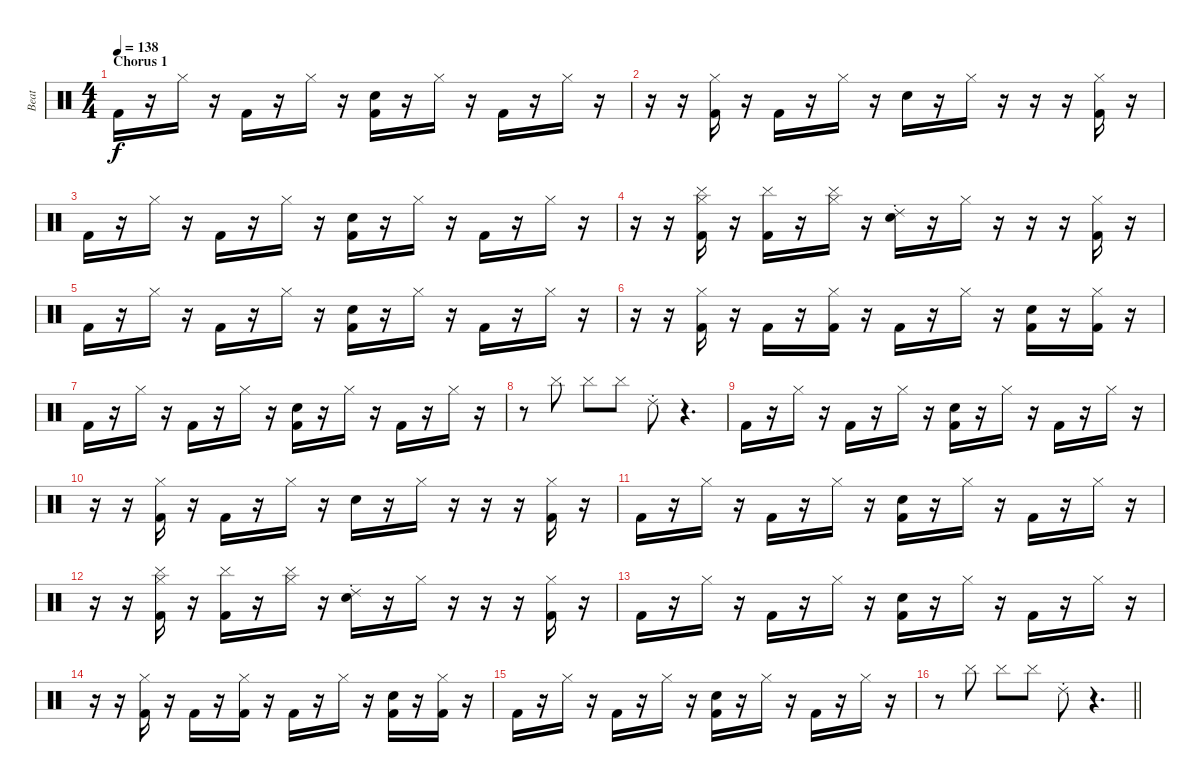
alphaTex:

\track ("Beat" "Beat") {instrument percussion}
\staff {score}
\articulation defaults
\ts (4 4)
\section ("" "Chorus 1")
\tempo 138
\clef neutral
\ks c "Kick (hit) 2".16{dy f}
r.16 "Hi-Hat (closed)".16 r.16 "Kick (hit) 2".16 r.16 "Hi-Hat (closed)".16 r.16 ("Electric Snare (hit)" "Kick (hit) 2").16 r.16 "Hi-Hat (closed)".16 r.16 "Kick (hit) 2".16 r.16 "Hi-Hat (closed)".16 r.16 |
r.16 r.16 ("Hi-Hat (closed)" "Kick (hit) 2").16 r.16 "Kick (hit) 2".16 r.16 "Hi-Hat (closed)".16 r.16 "Electric Snare (hit)".16 r.16 "Hi-Hat (closed)".16 r.16 r.16 r.16 ("Hi-Hat (closed)" "Kick (hit) 2").16 r.16 |
"Kick (hit) 2".16 r.16 "Hi-Hat (closed)".16 r.16 "Kick (hit) 2".16 r.16 "Hi-Hat (closed)".16 r.16 ("Electric Snare (hit)" "Kick (hit) 2").16 r.16 "Hi-Hat (closed)".16 r.16 "Kick (hit) 2".16 r.16 "Hi-Hat (closed)".16 r.16 |
r.16 r.16 ("Cymbal (hit)" "Hi-Hat (closed)" "Kick (hit) 2").16 r.16 ("Cymbal (hit)" "Kick (hit) 2").16 r.16 ("Cymbal (hit)" "Hi-Hat (closed)").16 r.16 ("Ride (choke) 2" "Electric Snare (hit)").16 r.16 "Hi-Hat (closed)".16 r.16 r.16 r.16 ("Hi-Hat (closed)" "Kick (hit) 2").16 r.16 |
"Kick (hit) 2".16 r.16 "Hi-Hat (closed)".16 r.16 "Kick (hit) 2".16 r.16 "Hi-Hat (closed)".16 r.16 ("Electric Snare (hit)" "Kick (hit) 2").16 r.16 "Hi-Hat (closed)".16 r.16 "Kick (hit) 2".16 r.16 "Hi-Hat (closed)".16 r.16 |
r.16 r.16 ("Hi-Hat (closed)" "Kick (hit) 2").16 r.16 "Kick (hit) 2".16 r.16 ("Hi-Hat (closed)" "Kick (hit) 2").16 r.16 "Kick (hit) 2".16 r.16 "Hi-Hat (closed)".16 r.16 ("Electric Snare (hit)" "Kick (hit) 2").16 r.16 ("Hi-Hat (closed)" "Kick (hit) 2").16 r.16 |
"Kick (hit) 2".16 r.16 "Hi-Hat (closed)".16 r.16 "Kick (hit) 2".16 r.16 "Hi-Hat (closed)".16 r.16 ("Electric Snare (hit)" "Kick (hit) 2").16 r.16 "Hi-Hat (closed)".16 r.16 "Kick (hit) 2".16 r.16 "Hi-Hat (closed)".16 r.16 |
r.8 "Cymbal (hit)".8 "Cymbal (hit)".8 "Cymbal (hit)".8 "Ride (choke) 2".8 r.4{d} |
"Kick (hit) 2".16 r.16 "Hi-Hat (closed)".16 r.16 "Kick (hit) 2".16 r.16 "Hi-Hat (closed)".16 r.16 ("Electric Snare (hit)" "Kick (hit) 2").16 r.16 "Hi-Hat (closed)".16 r.16 "Kick (hit) 2".16 r.16 "Hi-Hat (closed)".16 r.16 |
r.16 r.16 ("Hi-Hat (closed)" "Kick (hit) 2").16 r.16 "Kick (hit) 2".16 r.16 "Hi-Hat (closed)".16 r.16 "Electric Snare (hit)".16 r.16 "Hi-Hat (closed)".16 r.16 r.16 r.16 ("Hi-Hat (closed)" "Kick (hit) 2").16 r.16 |
"Kick (hit) 2".16 r.16 "Hi-Hat (closed)".16 r.16 "Kick (hit) 2".16 r.16 "Hi-Hat (closed)".16 r.16 ("Electric Snare (hit)" "Kick (hit) 2").16 r.16 "Hi-Hat (closed)".16 r.16 "Kick (hit) 2".16 r.16 "Hi-Hat (closed)".16 r.16 |
r.16 r.16 ("Cymbal (hit)" "Hi-Hat (closed)" "Kick (hit) 2").16 r.16 ("Cymbal (hit)" "Kick (hit) 2").16 r.16 ("Cymbal (hit)" "Hi-Hat (closed)").16 r.16 ("Ride (choke) 2" "Electric Snare (hit)").16 r.16 "Hi-Hat (closed)".16 r.16 r.16 r.16 ("Hi-Hat (closed)" "Kick (hit) 2").16 r.16 |
"Kick (hit) 2".16 r.16 "Hi-Hat (closed)".16 r.16 "Kick (hit) 2".16 r.16 "Hi-Hat (closed)".16 r.16 ("Electric Snare (hit)" "Kick (hit) 2").16 r.16 "Hi-Hat (closed)".16 r.16 "Kick (hit) 2".16 r.16 "Hi-Hat (closed)".16 r.16 |
r.16 r.16 ("Hi-Hat (closed)" "Kick (hit) 2").16 r.16 "Kick (hit) 2".16 r.16 ("Hi-Hat (closed)" "Kick (hit) 2").16 r.16 "Kick (hit) 2".16 r.16 "Hi-Hat (closed)".16 r.16 ("Electric Snare (hit)" "Kick (hit) 2").16 r.16 ("Hi-Hat (closed)" "Kick (hit) 2").16 r.16 |
"Kick (hit) 2".16 r.16 "Hi-Hat (closed)".16 r.16 "Kick (hit) 2".16 r.16 "Hi-Hat (closed)".16 r.16 ("Electric Snare (hit)" "Kick (hit) 2").16 r.16 "Hi-Hat (closed)".16 r.16 "Kick (hit) 2".16 r.16 "Hi-Hat (closed)".16 r.16 |
\barLineRight lightlight
r.8 "Cymbal (hit)".8 "Cymbal (hit)".8 "Cymbal (hit)".8 "Ride (choke) 2".8 r.4{d}
